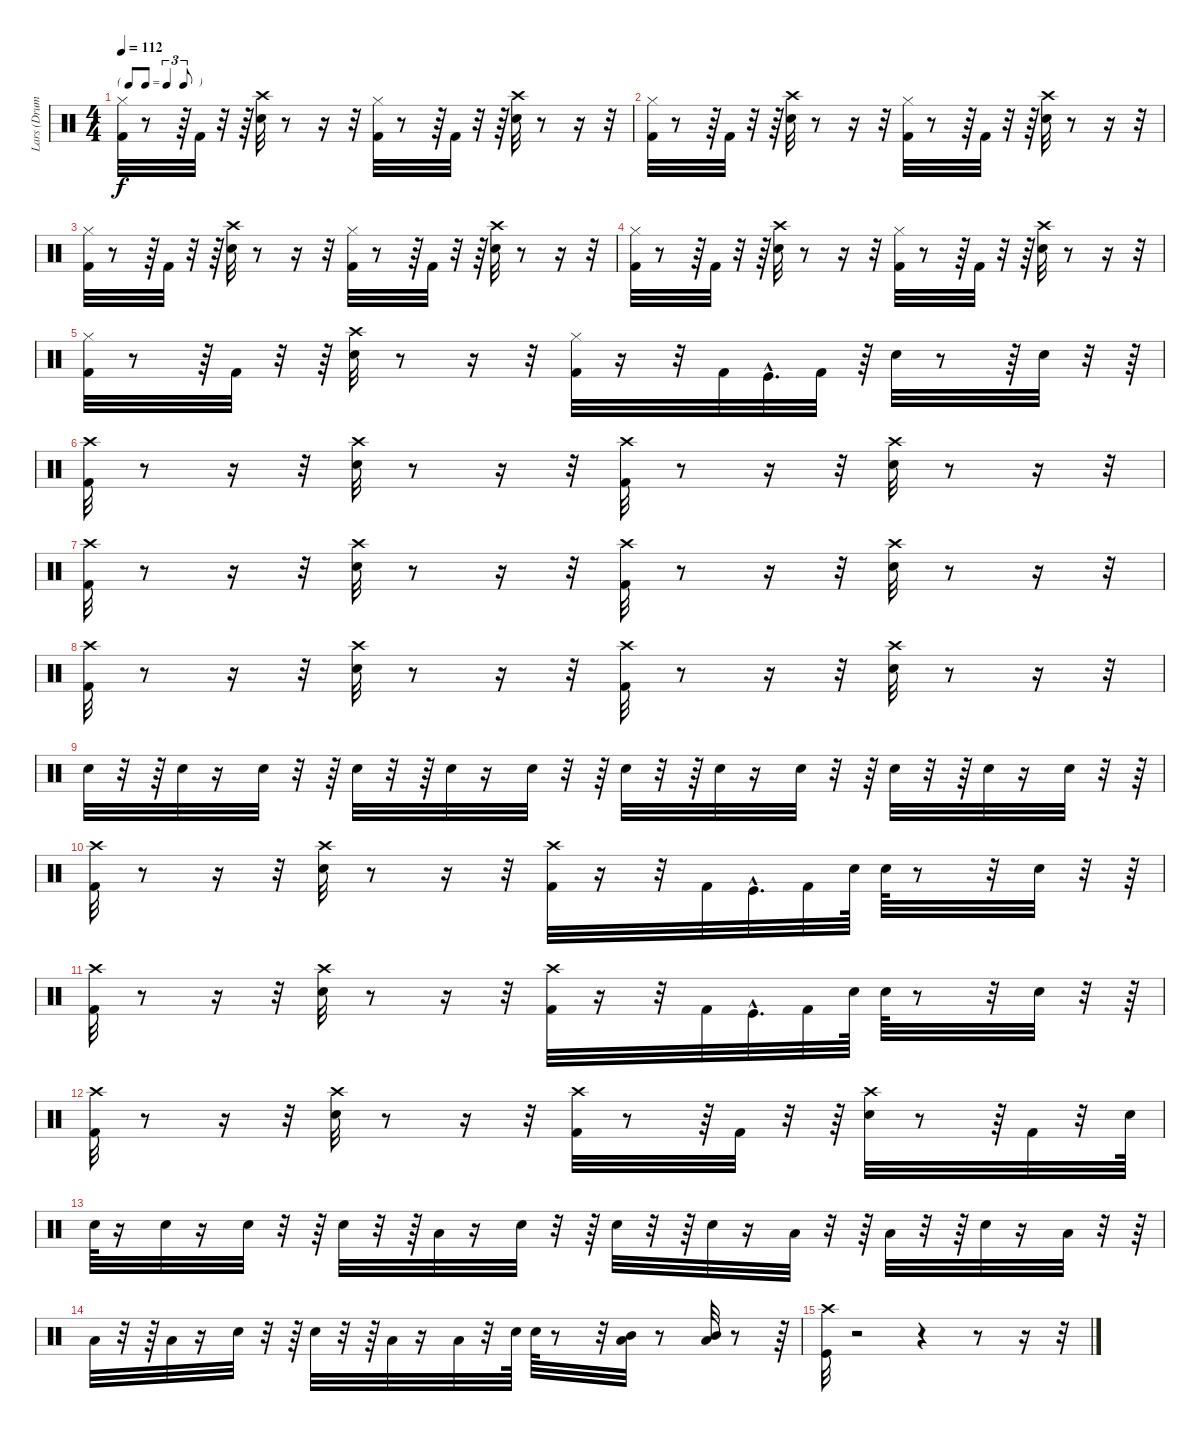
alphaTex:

\track ("Lars (Drums)" "Lars (Drum") {instrument percussion}
\staff {score}
\articulation defaults
\ts (4 4)
\tf triplet8th
\tempo 112
\clef neutral
\ks c
("Hi-Hat (closed)" "Kick (hit) 2").32{dy f} r.8 r.64 "Kick (hit) 2".32 r.32 r.64 ("Crash high (hit)" "Snare (hit) 2").32 r.8 r.16 r.32 ("Hi-Hat (closed)" "Kick (hit) 2").32 r.8 r.64 "Kick (hit) 2".32 r.32 r.64 ("Snare (hit) 2" "Crash high (hit)").32 r.8 r.16 r.32 |
("Hi-Hat (closed)" "Kick (hit) 2").32 r.8 r.64 "Kick (hit) 2".32 r.32 r.64 ("Crash high (hit)" "Snare (hit) 2").32 r.8 r.16 r.32 ("Hi-Hat (closed)" "Kick (hit) 2").32 r.8 r.64 "Kick (hit) 2".32 r.32 r.64 ("Snare (hit) 2" "Crash high (hit)").32 r.8 r.16 r.32 |
("Hi-Hat (closed)" "Kick (hit) 2").32 r.8 r.64 "Kick (hit) 2".32 r.32 r.64 ("Crash high (hit)" "Snare (hit) 2").32 r.8 r.16 r.32 ("Hi-Hat (closed)" "Kick (hit) 2").32 r.8 r.64 "Kick (hit) 2".32 r.32 r.64 ("Snare (hit) 2" "Crash high (hit)").32 r.8 r.16 r.32 |
("Hi-Hat (closed)" "Kick (hit) 2").32 r.8 r.64 "Kick (hit) 2".32 r.32 r.64 ("Crash high (hit)" "Snare (hit) 2").32 r.8 r.16 r.32 ("Hi-Hat (closed)" "Kick (hit) 2").32 r.8 r.64 "Kick (hit) 2".32 r.32 r.64 ("Snare (hit) 2" "Crash high (hit)").32 r.8 r.16 r.32 |
("Hi-Hat (closed)" "Kick (hit) 2").32 r.8 r.64 "Kick (hit) 2".32 r.32 r.64 ("Snare (hit) 2" "Crash high (hit)").32 r.8 r.16 r.32 ("Hi-Hat (closed)" "Kick (hit) 2").32 r.16 r.32 "Kick (hit) 2".32 "Kick (hit)"{hac}.32{d} "Kick (hit) 2".32 r.64 "Snare (hit) 2".32 r.8 r.64 "Snare (hit) 2".32 r.32 r.64 |
("Crash high (hit)" "Kick (hit) 2").32 r.8 r.16 r.32 ("Snare (hit) 2" "Crash high (hit)").32 r.8 r.16 r.32 ("Crash high (hit)" "Kick (hit) 2").32 r.8 r.16 r.32 ("Snare (hit) 2" "Crash high (hit)").32 r.8 r.16 r.32 |
("Crash high (hit)" "Kick (hit) 2").32 r.8 r.16 r.32 ("Snare (hit) 2" "Crash high (hit)").32 r.8 r.16 r.32 ("Crash high (hit)" "Kick (hit) 2").32 r.8 r.16 r.32 ("Snare (hit) 2" "Crash high (hit)").32 r.8 r.16 r.32 |
("Crash high (hit)" "Kick (hit) 2").32 r.8 r.16 r.32 ("Snare (hit) 2" "Crash high (hit)").32 r.8 r.16 r.32 ("Crash high (hit)" "Kick (hit) 2").32 r.8 r.16 r.32 ("Snare (hit) 2" "Crash high (hit)").32 r.8 r.16 r.32 |
"Snare (hit) 2".32 r.32 r.64 "Snare (hit) 2".32 r.16 "Snare (hit) 2".32 r.32 r.64 "Snare (hit) 2".32 r.32 r.64 "Snare (hit) 2".32 r.16 "Snare (hit) 2".32 r.32 r.64 "Snare (hit) 2".32 r.32 r.64 "Snare (hit) 2".32 r.16 "Snare (hit) 2".32 r.32 r.64 "Snare (hit) 2".32 r.32 r.64 "Snare (hit) 2".32 r.16 "Snare (hit) 2".32 r.32 r.64 |
("Crash high (hit)" "Kick (hit) 2").32 r.8 r.16 r.32 ("Crash high (hit)" "Snare (hit) 2").32 r.8 r.16 r.32 ("Crash high (hit)" "Kick (hit) 2").32 r.16 r.32 "Kick (hit) 2".32 "Kick (hit)"{hac}.32{d} "Kick (hit) 2".32 "Snare (hit) 2".64 "Snare (hit) 2".64 r.8 r.32 "Snare (hit) 2".32 r.32 r.64 |
("Crash high (hit)" "Kick (hit) 2").32 r.8 r.16 r.32 ("Crash high (hit)" "Snare (hit) 2").32 r.8 r.16 r.32 ("Crash high (hit)" "Kick (hit) 2").32 r.16 r.32 "Kick (hit) 2".32 "Kick (hit)"{hac}.32{d} "Kick (hit) 2".32 "Snare (hit) 2".64 "Snare (hit) 2".64 r.8 r.32 "Snare (hit) 2".32 r.32 r.64 |
("Crash high (hit)" "Kick (hit) 2").32 r.8 r.16 r.32 ("Crash high (hit)" "Snare (hit) 2").32 r.8 r.16 r.32 ("Kick (hit) 2" "Crash high (hit)").32 r.8 r.64 "Kick (hit) 2".32 r.32 r.64 ("Snare (hit) 2" "Crash high (hit)").32 r.8 r.64 "Kick (hit) 2".32 r.32 "Snare (hit) 2".64 |
"Snare (hit) 2".64 r.16 "Snare (hit) 2".32 r.16 "Snare (hit) 2".32 r.32 r.64 "Snare (hit) 2".32 r.32 r.64 "Low Tom (hit)".32 r.16 "Snare (hit) 2".32 r.32 r.64 "Snare (hit) 2".32 r.32 r.64 "Snare (hit) 2".32 r.16 "Low Tom (hit)".32 r.32 r.64 "Low Tom (hit)".32 r.32 r.64 "Snare (hit) 2".32 r.16 "Low Tom (hit)".32 r.32 r.64 |
"Low Tom (hit)".32 r.32 r.64 "Low Tom (hit)".32 r.16 "Snare (hit) 2".32 r.32 r.64 "Snare (hit) 2".32 r.32 r.64 "Low Tom (hit)".32 r.16 "Low Tom (hit)".32 r.32 "Snare (hit) 2".64 "Snare (hit) 2".64 r.8 r.32 ("Mid Tom (hit)" "Low Tom (hit)").32 r.8 ("Mid Tom (hit)" "Low Tom (hit)").32 r.8 r.64 |
("Kick (hit)" "Crash high (hit)").32 r.2 r.4 r.8 r.16 r.32
